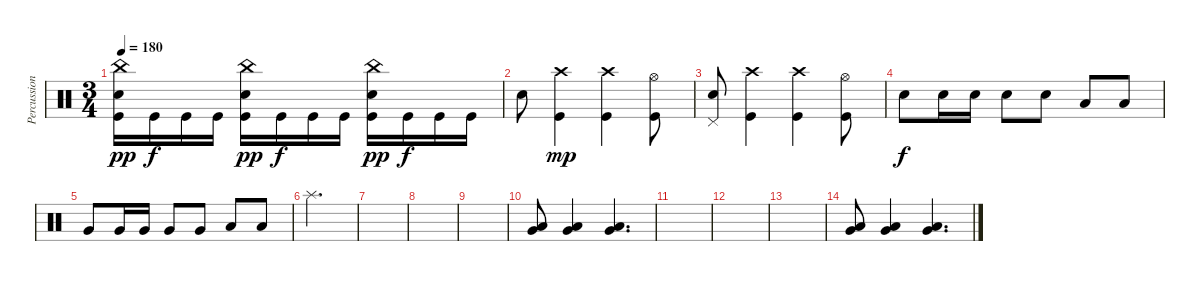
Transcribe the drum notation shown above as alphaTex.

\track ("Percussion" "Percussion") {instrument percussion}
\staff {score}
\articulation defaults
\ts (3 4)
\tempo 180
\clef neutral
\ks c
("China (hit)" "Electric Snare (hit)" "Kick (hit)").16{dy pp} "Kick (hit)".16{dy f} "Kick (hit)".16 "Kick (hit)".16 ("China (hit)" "Electric Snare (hit)" "Kick (hit)").16{dy pp} "Kick (hit)".16{dy f} "Kick (hit)".16 "Kick (hit)".16 ("China (hit)" "Electric Snare (hit)" "Kick (hit)").16{dy pp} "Kick (hit)".16{dy f} "Kick (hit)".16 "Kick (hit)".16 |
"Electric Snare (hit)".8 ("Crash high (hit)" "Kick (hit)").4{dy mp} ("Crash high (hit)" "Kick (hit)").4 ("Hi-Hat (open)" "Kick (hit)").8 |
("Pedal Hi-Hat (hit)" "Electric Snare (hit)").8 ("Crash high (hit)" "Kick (hit)").4 ("Crash high (hit)" "Kick (hit)").4 ("Hi-Hat (open)" "Kick (hit)").8 |
"Electric Snare (hit)".8{dy f} "Electric Snare (hit)".16 "Electric Snare (hit)".16 "Electric Snare (hit)".8 "Electric Snare (hit)".8 "Low Tom (hit)".8 "Low Tom (hit)".8 |
"Very Low Tom (hit)".8 "Very Low Tom (hit)".16 "Very Low Tom (hit)".16 "Very Low Tom (hit)".8 "Very Low Tom (hit)".8 "Low Floor Tom (hit)".8 "Low Floor Tom (hit)".8 |
"Splash (hit)".2{d} |
|
|
|
("Very Low Tom (hit)" "Low Floor Tom (hit)").8 ("Very Low Tom (hit)" "Low Floor Tom (hit)").4 ("Very Low Tom (hit)" "Low Floor Tom (hit)").4{d} |
|
|
|
("Very Low Tom (hit)" "Low Floor Tom (hit)").8 ("Very Low Tom (hit)" "Low Floor Tom (hit)").4 ("Very Low Tom (hit)" "Low Floor Tom (hit)").4{d}
